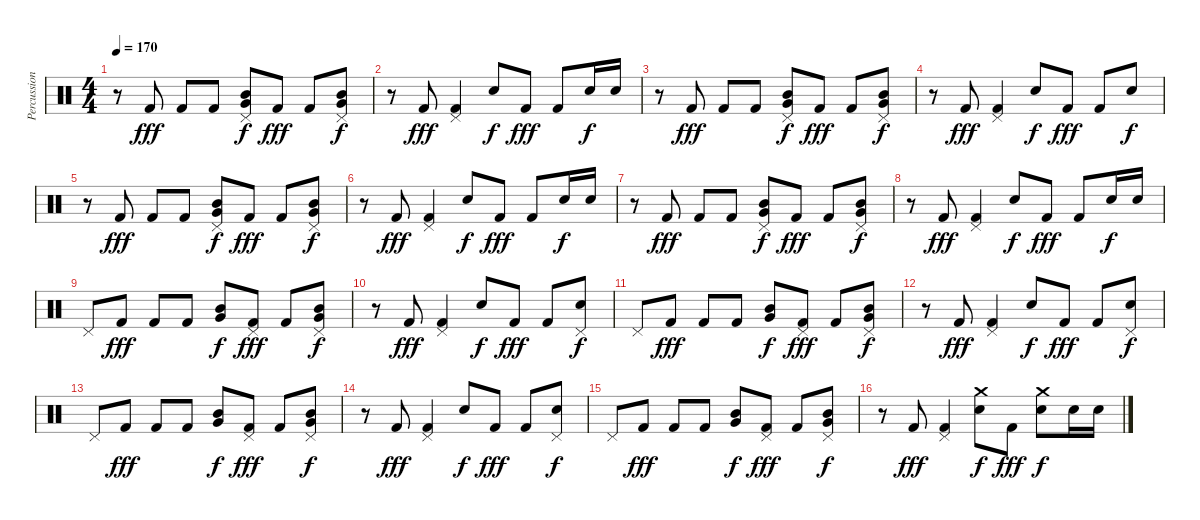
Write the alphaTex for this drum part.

\track ("Percussion" "Percussion") {instrument percussion}
\staff {score}
\articulation defaults
\ts (4 4)
\tempo 170
\clef neutral
\ks c
r.8{dy f} "Kick (hit) 2".8{dy fff} "Kick (hit) 2".8 "Kick (hit) 2".8 ("Pedal Hi-Hat (hit)" "Mid Tom (hit)" "Very Low Tom (hit)").8{dy f} "Kick (hit) 2".8{dy fff} "Kick (hit) 2".8 ("Pedal Hi-Hat (hit)" "Mid Tom (hit)" "Very Low Tom (hit)").8{dy f} |
r.8 "Kick (hit) 2".8{dy fff} ("Pedal Hi-Hat (hit)" "Kick (hit) 2").4 "Electric Snare (hit)".8{dy f} "Kick (hit) 2".8{dy fff} "Kick (hit) 2".8 "Electric Snare (hit)".16{dy f} "Electric Snare (hit)".16 |
r.8 "Kick (hit) 2".8{dy fff} "Kick (hit) 2".8 "Kick (hit) 2".8 ("Pedal Hi-Hat (hit)" "Mid Tom (hit)" "Very Low Tom (hit)").8{dy f} "Kick (hit) 2".8{dy fff} "Kick (hit) 2".8 ("Pedal Hi-Hat (hit)" "Mid Tom (hit)" "Very Low Tom (hit)").8{dy f} |
r.8 "Kick (hit) 2".8{dy fff} ("Pedal Hi-Hat (hit)" "Kick (hit) 2").4 "Electric Snare (hit)".8{dy f} "Kick (hit) 2".8{dy fff} "Kick (hit) 2".8 "Electric Snare (hit)".8{dy f} |
r.8 "Kick (hit) 2".8{dy fff} "Kick (hit) 2".8 "Kick (hit) 2".8 ("Pedal Hi-Hat (hit)" "Mid Tom (hit)" "Very Low Tom (hit)").8{dy f} "Kick (hit) 2".8{dy fff} "Kick (hit) 2".8 ("Pedal Hi-Hat (hit)" "Mid Tom (hit)" "Very Low Tom (hit)").8{dy f} |
r.8 "Kick (hit) 2".8{dy fff} ("Pedal Hi-Hat (hit)" "Kick (hit) 2").4 "Electric Snare (hit)".8{dy f} "Kick (hit) 2".8{dy fff} "Kick (hit) 2".8 "Electric Snare (hit)".16{dy f} "Electric Snare (hit)".16 |
r.8 "Kick (hit) 2".8{dy fff} "Kick (hit) 2".8 "Kick (hit) 2".8 ("Pedal Hi-Hat (hit)" "Mid Tom (hit)" "Very Low Tom (hit)").8{dy f} "Kick (hit) 2".8{dy fff} "Kick (hit) 2".8 ("Pedal Hi-Hat (hit)" "Mid Tom (hit)" "Very Low Tom (hit)").8{dy f} |
r.8 "Kick (hit) 2".8{dy fff} ("Pedal Hi-Hat (hit)" "Kick (hit) 2").4 "Electric Snare (hit)".8{dy f} "Kick (hit) 2".8{dy fff} "Kick (hit) 2".8 "Electric Snare (hit)".16{dy f} "Electric Snare (hit)".16 |
"Pedal Hi-Hat (hit)".8 "Kick (hit) 2".8{dy fff} "Kick (hit) 2".8 "Kick (hit) 2".8 ("Mid Tom (hit)" "Very Low Tom (hit)").8{dy f} ("Pedal Hi-Hat (hit)" "Kick (hit) 2").8{dy fff} "Kick (hit) 2".8 ("Pedal Hi-Hat (hit)" "Mid Tom (hit)" "Very Low Tom (hit)").8{dy f} |
r.8 "Kick (hit) 2".8{dy fff} ("Pedal Hi-Hat (hit)" "Kick (hit) 2").4 "Electric Snare (hit)".8{dy f} "Kick (hit) 2".8{dy fff} "Kick (hit) 2".8 ("Pedal Hi-Hat (hit)" "Electric Snare (hit)").8{dy f} |
"Pedal Hi-Hat (hit)".8 "Kick (hit) 2".8{dy fff} "Kick (hit) 2".8 "Kick (hit) 2".8 ("Mid Tom (hit)" "Very Low Tom (hit)").8{dy f} ("Pedal Hi-Hat (hit)" "Kick (hit) 2").8{dy fff} "Kick (hit) 2".8 ("Pedal Hi-Hat (hit)" "Mid Tom (hit)" "Very Low Tom (hit)").8{dy f} |
r.8 "Kick (hit) 2".8{dy fff} ("Pedal Hi-Hat (hit)" "Kick (hit) 2").4 "Electric Snare (hit)".8{dy f} "Kick (hit) 2".8{dy fff} "Kick (hit) 2".8 ("Pedal Hi-Hat (hit)" "Electric Snare (hit)").8{dy f} |
"Pedal Hi-Hat (hit)".8 "Kick (hit) 2".8{dy fff} "Kick (hit) 2".8 "Kick (hit) 2".8 ("Mid Tom (hit)" "Very Low Tom (hit)").8{dy f} ("Pedal Hi-Hat (hit)" "Kick (hit) 2").8{dy fff} "Kick (hit) 2".8 ("Pedal Hi-Hat (hit)" "Mid Tom (hit)" "Very Low Tom (hit)").8{dy f} |
r.8 "Kick (hit) 2".8{dy fff} ("Pedal Hi-Hat (hit)" "Kick (hit) 2").4 "Electric Snare (hit)".8{dy f} "Kick (hit) 2".8{dy fff} "Kick (hit) 2".8 ("Pedal Hi-Hat (hit)" "Electric Snare (hit)").8{dy f} |
"Pedal Hi-Hat (hit)".8 "Kick (hit) 2".8{dy fff} "Kick (hit) 2".8 "Kick (hit) 2".8 ("Mid Tom (hit)" "Very Low Tom (hit)").8{dy f} ("Pedal Hi-Hat (hit)" "Kick (hit) 2").8{dy fff} "Kick (hit) 2".8 ("Pedal Hi-Hat (hit)" "Mid Tom (hit)" "Very Low Tom (hit)").8{dy f} |
r.8 "Kick (hit) 2".8{dy fff} ("Pedal Hi-Hat (hit)" "Kick (hit) 2").4 ("Crash medium (hit)" "Electric Snare (hit)").8{dy f} "Kick (hit) 2".8{dy fff} ("Crash medium (hit)" "Electric Snare (hit)").8{dy f} "Electric Snare (hit)".16 "Electric Snare (hit)".16
